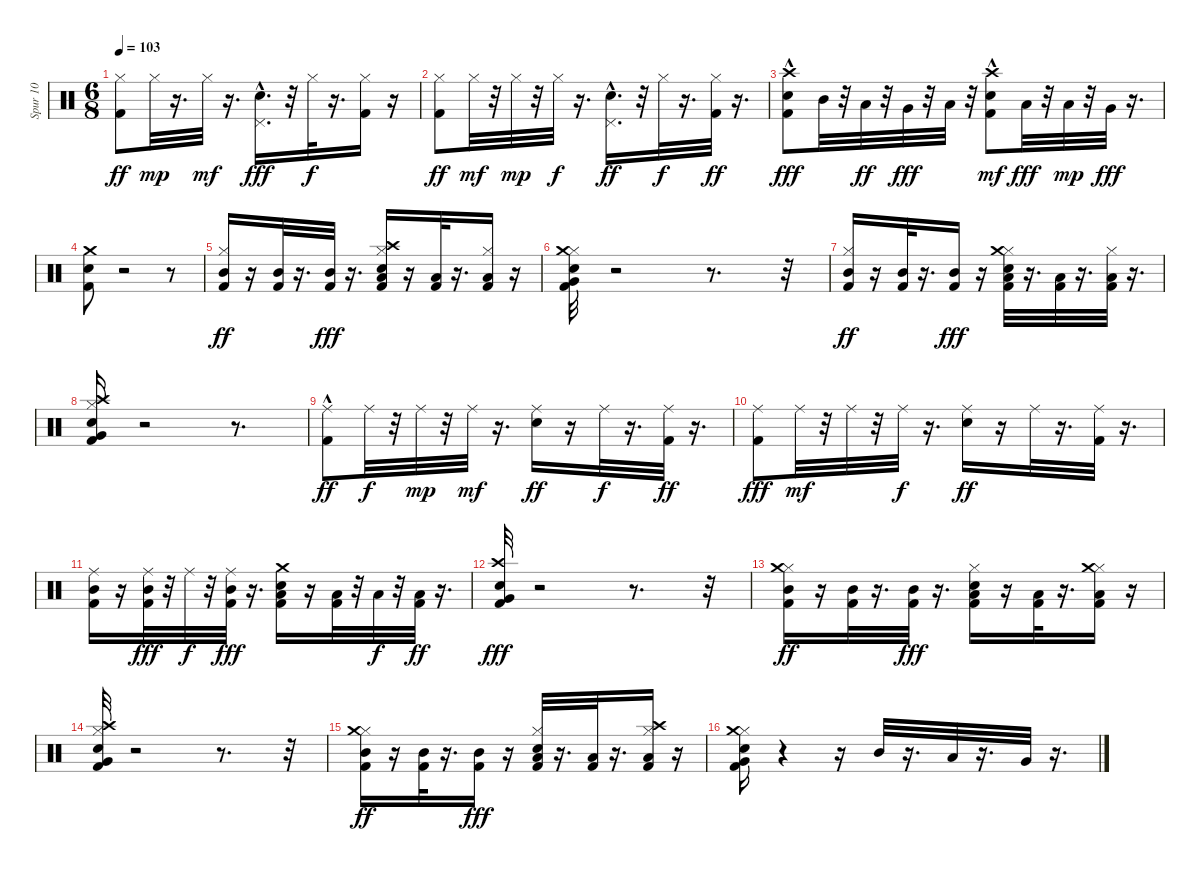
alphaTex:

\track ("Spur 10" "Spur 10") {instrument percussion}
\staff {score}
\articulation defaults
\ts (6 8)
\tempo 103
\clef neutral
\ks c
("Kick (hit) 2" "Hi-Hat (closed)").8{dy ff} "Hi-Hat (closed)".32{dy mp} r.16{d} "Hi-Hat (closed)".32{dy mf} r.16{d} ("Snare (hit) 2"{hac} "Pedal Hi-Hat (hit)").16{d dy fff} r.32 "Hi-Hat (closed)".32{dy f} r.16{d} ("Kick (hit) 2" "Hi-Hat (closed)").16 r.16 |
("Kick (hit) 2" "Hi-Hat (closed)").8{dy ff} "Hi-Hat (closed)".32{dy mf} r.32 "Hi-Hat (closed)".32{dy mp} r.32 "Hi-Hat (closed)".32{dy f} r.16{d} ("Snare (hit) 2"{hac} "Pedal Hi-Hat (hit)").16{d dy ff} r.32 "Hi-Hat (closed)".32{dy f} r.16{d} ("Kick (hit) 2" "Hi-Hat (closed)").32{dy ff} r.16{d} |
("Kick (hit) 2"{hac} "Snare (hit) 2" "Crash high (hit)"{hac}).8{dy fff} "Mid Tom (hit)".32 r.32 "Low Tom (hit)".32{dy ff} r.32 "Very Low Tom (hit)".32{dy fff} r.32 "Low Floor Tom (hit)".32 r.32 ("Kick (hit) 2"{hac} "Snare (hit) 2" "Crash high (hit)").8{dy mf} "Low Tom (hit)".32{dy fff} r.32 "Low Tom (hit)".32{dy mp} r.32 "Very Low Tom (hit)".32{dy fff} r.16{d} |
("Kick (hit) 2" "Snare (hit) 2" "Crash medium (hit)").8 r.2 r.8 |
("Kick (hit) 2" "Hi-Hat (closed)" "Mid Tom (hit)").16{dy ff} r.16 ("Kick (hit) 2" "Mid Tom (hit)").32 r.16{d} ("Kick (hit) 2" "Mid Tom (hit)").32{dy fff} r.16{d} ("Kick (hit) 2" "Snare (hit) 2" "Hi-Hat (closed)" "Crash high (hit)" "Low Tom (hit)").16 r.16 ("Kick (hit) 2" "Low Tom (hit)").32 r.16{d} ("Kick (hit) 2" "Hi-Hat (closed)" "Low Tom (hit)").16 r.16 |
("Kick (hit) 2" "Snare (hit) 2" "Hi-Hat (closed)" "Crash medium (hit)" "Very Low Tom (hit)").32 r.2 r.8{d} r.32 |
("Kick (hit) 2" "Hi-Hat (closed)" "Mid Tom (hit)").16{dy ff} r.16 ("Kick (hit) 2" "Mid Tom (hit)").32 r.16{d} ("Kick (hit) 2" "Mid Tom (hit)").16{dy fff} r.16 ("Kick (hit) 2" "Snare (hit) 2" "Hi-Hat (closed)" "Crash medium (hit)" "Low Tom (hit)").32 r.16{d} ("Kick (hit) 2" "Low Tom (hit)").32 r.16{d} ("Kick (hit) 2" "Hi-Hat (closed)" "Low Tom (hit)").32 r.16{d} |
("Kick (hit) 2" "Snare (hit) 2" "Hi-Hat (closed)" "Crash high (hit)" "Very Low Tom (hit)").16 r.2 r.8{d} |
("Kick (hit) 2"{hac} "Ride (middle)").8{dy ff} "Ride (middle)".32{dy f} r.32 "Ride (middle)".32{dy mp} r.32 "Ride (middle)".32{dy mf} r.16{d} ("Snare (hit) 2" "Ride (middle)").16{dy ff} r.16 "Ride (middle)".32{dy f} r.16{d} ("Kick (hit) 2" "Ride (middle)").32{dy ff} r.16{d} |
("Kick (hit) 2" "Ride (middle)").8{dy fff} "Ride (middle)".32{dy mf} r.32 "Ride (middle)".32 r.32 "Ride (middle)".32{dy f} r.16{d} ("Snare (hit) 2" "Ride (middle)").16{dy ff} r.16 "Ride (middle)".32 r.16{d} ("Kick (hit) 2" "Ride (middle)").32 r.16{d} |
("Kick (hit) 2" "Ride (middle)" "Mid Tom (hit)").16 r.16 ("Kick (hit) 2" "Ride (middle)" "Mid Tom (hit)").32{dy fff} r.32 "Ride (middle)".32{dy f} r.32 ("Kick (hit) 2" "Ride (middle)" "Mid Tom (hit)").32{dy fff} r.16{d} ("Kick (hit) 2" "Snare (hit) 2" "Crash medium (hit)" "Low Tom (hit)").16 r.16 ("Kick (hit) 2" "Low Tom (hit)").32 r.32 "Low Tom (hit)".32{dy f} r.32 ("Kick (hit) 2" "Low Tom (hit)").32{dy ff} r.16{d} |
("Kick (hit) 2" "Snare (hit) 2" "Crash high (hit)" "Very Low Tom (hit)").32{dy fff} r.2 r.8{d} r.32 |
("Kick (hit) 2" "Hi-Hat (closed)" "Crash medium (hit)" "Mid Tom (hit)").16{dy ff} r.16 ("Kick (hit) 2" "Mid Tom (hit)").32 r.16{d} ("Kick (hit) 2" "Mid Tom (hit)").32{dy fff} r.16{d} ("Kick (hit) 2" "Snare (hit) 2" "Hi-Hat (closed)" "Low Tom (hit)").16 r.16 ("Kick (hit) 2" "Low Tom (hit)").32 r.16{d} ("Kick (hit) 2" "Hi-Hat (closed)" "Crash medium (hit)" "Low Tom (hit)").16 r.16 |
("Kick (hit) 2" "Snare (hit) 2" "Hi-Hat (closed)" "Crash high (hit)" "Very Low Tom (hit)").32 r.2 r.8{d} r.32 |
("Kick (hit) 2" "Hi-Hat (closed)" "Crash medium (hit)" "Mid Tom (hit)").16{dy ff} r.16 ("Kick (hit) 2" "Mid Tom (hit)").32 r.16{d} ("Kick (hit) 2" "Mid Tom (hit)").16{dy fff} r.16 ("Kick (hit) 2" "Snare (hit) 2" "Hi-Hat (closed)" "Low Tom (hit)").32 r.16{d} ("Kick (hit) 2" "Low Tom (hit)").32 r.16{d} ("Kick (hit) 2" "Hi-Hat (closed)" "Crash high (hit)" "Low Tom (hit)").16 r.16 |
("Kick (hit) 2" "Snare (hit) 2" "Hi-Hat (closed)" "Crash medium (hit)" "Very Low Tom (hit)").16 r.4 r.16 "Mid Tom (hit)".32 r.16{d} "Low Tom (hit)".32 r.16{d} "Very Low Tom (hit)".32 r.16{d}
